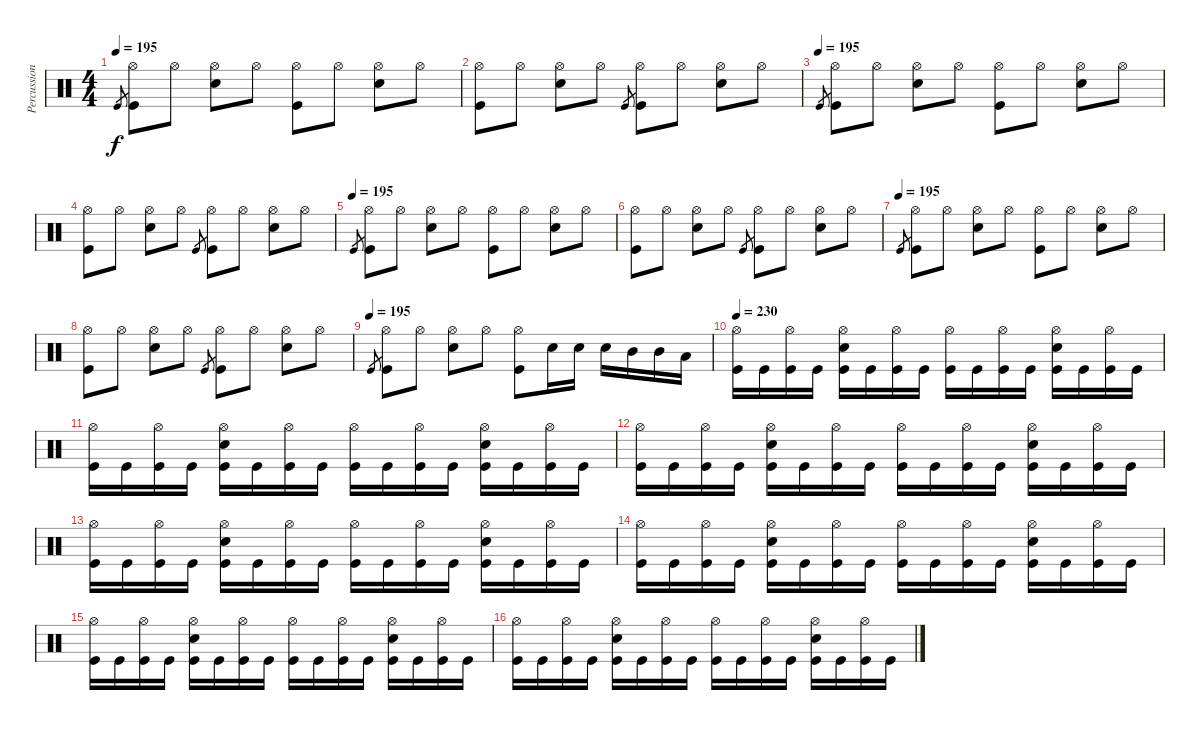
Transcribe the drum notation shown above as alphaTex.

\track ("Percussion" "Percussion") {instrument percussion}
\staff {score}
\articulation defaults
\ts (4 4)
\tempo 195
\clef neutral
\ks c "Kick (hit)".8{gr dy f}
("Hi-Hat (open)" "Kick (hit)").8 "Hi-Hat (open)".8 ("Hi-Hat (open)" "Electric Snare (hit)").8 "Hi-Hat (open)".8 ("Hi-Hat (open)" "Kick (hit)").8 "Hi-Hat (open)".8 ("Hi-Hat (open)" "Electric Snare (hit)").8 "Hi-Hat (open)".8 |
("Hi-Hat (open)" "Kick (hit)").8 "Hi-Hat (open)".8 ("Hi-Hat (open)" "Electric Snare (hit)").8 "Hi-Hat (open)".8 "Kick (hit)".8{gr} ("Hi-Hat (open)" "Kick (hit)").8 "Hi-Hat (open)".8 ("Hi-Hat (open)" "Electric Snare (hit)").8 "Hi-Hat (open)".8 |
\tempo (195)
"Kick (hit)".8{gr} ("Hi-Hat (open)" "Kick (hit)").8 "Hi-Hat (open)".8 ("Hi-Hat (open)" "Electric Snare (hit)").8 "Hi-Hat (open)".8 ("Hi-Hat (open)" "Kick (hit)").8 "Hi-Hat (open)".8 ("Hi-Hat (open)" "Electric Snare (hit)").8 "Hi-Hat (open)".8 |
("Hi-Hat (open)" "Kick (hit)").8 "Hi-Hat (open)".8 ("Hi-Hat (open)" "Electric Snare (hit)").8 "Hi-Hat (open)".8 "Kick (hit)".8{gr} ("Hi-Hat (open)" "Kick (hit)").8 "Hi-Hat (open)".8 ("Hi-Hat (open)" "Electric Snare (hit)").8 "Hi-Hat (open)".8 |
\tempo (195)
"Kick (hit)".8{gr} ("Hi-Hat (open)" "Kick (hit)").8 "Hi-Hat (open)".8 ("Hi-Hat (open)" "Electric Snare (hit)").8 "Hi-Hat (open)".8 ("Hi-Hat (open)" "Kick (hit)").8 "Hi-Hat (open)".8 ("Hi-Hat (open)" "Electric Snare (hit)").8 "Hi-Hat (open)".8 |
("Hi-Hat (open)" "Kick (hit)").8 "Hi-Hat (open)".8 ("Hi-Hat (open)" "Electric Snare (hit)").8 "Hi-Hat (open)".8 "Kick (hit)".8{gr} ("Hi-Hat (open)" "Kick (hit)").8 "Hi-Hat (open)".8 ("Hi-Hat (open)" "Electric Snare (hit)").8 "Hi-Hat (open)".8 |
\tempo (195)
"Kick (hit)".8{gr} ("Hi-Hat (open)" "Kick (hit)").8 "Hi-Hat (open)".8 ("Hi-Hat (open)" "Electric Snare (hit)").8 "Hi-Hat (open)".8 ("Hi-Hat (open)" "Kick (hit)").8 "Hi-Hat (open)".8 ("Hi-Hat (open)" "Electric Snare (hit)").8 "Hi-Hat (open)".8 |
("Hi-Hat (open)" "Kick (hit)").8 "Hi-Hat (open)".8 ("Hi-Hat (open)" "Electric Snare (hit)").8 "Hi-Hat (open)".8 "Kick (hit)".8{gr} ("Hi-Hat (open)" "Kick (hit)").8 "Hi-Hat (open)".8 ("Hi-Hat (open)" "Electric Snare (hit)").8 "Hi-Hat (open)".8 |
\tempo (195)
"Kick (hit)".8{gr} ("Hi-Hat (open)" "Kick (hit)").8 "Hi-Hat (open)".8 ("Hi-Hat (open)" "Electric Snare (hit)").8 "Hi-Hat (open)".8 ("Hi-Hat (open)" "Kick (hit)").8 "Electric Snare (hit)".16 "Electric Snare (hit)".16 "Electric Snare (hit)".16 "Mid Tom (hit)".16 "Mid Tom (hit)".16 "Low Tom (hit)".16 |
\tempo 230
("Hi-Hat (open)" "Kick (hit)").16 "Kick (hit)".16 ("Hi-Hat (open)" "Kick (hit)").16 "Kick (hit)".16 ("Hi-Hat (open)" "Electric Snare (hit)" "Kick (hit)").16 "Kick (hit)".16 ("Hi-Hat (open)" "Kick (hit)").16 "Kick (hit)".16 ("Hi-Hat (open)" "Kick (hit)").16 "Kick (hit)".16 ("Hi-Hat (open)" "Kick (hit)").16 "Kick (hit)".16 ("Hi-Hat (open)" "Electric Snare (hit)" "Kick (hit)").16 "Kick (hit)".16 ("Hi-Hat (open)" "Kick (hit)").16 "Kick (hit)".16 |
("Hi-Hat (open)" "Kick (hit)").16 "Kick (hit)".16 ("Hi-Hat (open)" "Kick (hit)").16 "Kick (hit)".16 ("Hi-Hat (open)" "Electric Snare (hit)" "Kick (hit)").16 "Kick (hit)".16 ("Hi-Hat (open)" "Kick (hit)").16 "Kick (hit)".16 ("Hi-Hat (open)" "Kick (hit)").16 "Kick (hit)".16 ("Hi-Hat (open)" "Kick (hit)").16 "Kick (hit)".16 ("Hi-Hat (open)" "Electric Snare (hit)" "Kick (hit)").16 "Kick (hit)".16 ("Hi-Hat (open)" "Kick (hit)").16 "Kick (hit)".16 |
("Hi-Hat (open)" "Kick (hit)").16 "Kick (hit)".16 ("Hi-Hat (open)" "Kick (hit)").16 "Kick (hit)".16 ("Hi-Hat (open)" "Electric Snare (hit)" "Kick (hit)").16 "Kick (hit)".16 ("Hi-Hat (open)" "Kick (hit)").16 "Kick (hit)".16 ("Hi-Hat (open)" "Kick (hit)").16 "Kick (hit)".16 ("Hi-Hat (open)" "Kick (hit)").16 "Kick (hit)".16 ("Hi-Hat (open)" "Electric Snare (hit)" "Kick (hit)").16 "Kick (hit)".16 ("Hi-Hat (open)" "Kick (hit)").16 "Kick (hit)".16 |
("Hi-Hat (open)" "Kick (hit)").16 "Kick (hit)".16 ("Hi-Hat (open)" "Kick (hit)").16 "Kick (hit)".16 ("Hi-Hat (open)" "Electric Snare (hit)" "Kick (hit)").16 "Kick (hit)".16 ("Hi-Hat (open)" "Kick (hit)").16 "Kick (hit)".16 ("Hi-Hat (open)" "Kick (hit)").16 "Kick (hit)".16 ("Hi-Hat (open)" "Kick (hit)").16 "Kick (hit)".16 ("Hi-Hat (open)" "Electric Snare (hit)" "Kick (hit)").16 "Kick (hit)".16 ("Hi-Hat (open)" "Kick (hit)").16 "Kick (hit)".16 |
("Hi-Hat (open)" "Kick (hit)").16 "Kick (hit)".16 ("Hi-Hat (open)" "Kick (hit)").16 "Kick (hit)".16 ("Hi-Hat (open)" "Electric Snare (hit)" "Kick (hit)").16 "Kick (hit)".16 ("Hi-Hat (open)" "Kick (hit)").16 "Kick (hit)".16 ("Hi-Hat (open)" "Kick (hit)").16 "Kick (hit)".16 ("Hi-Hat (open)" "Kick (hit)").16 "Kick (hit)".16 ("Hi-Hat (open)" "Electric Snare (hit)" "Kick (hit)").16 "Kick (hit)".16 ("Hi-Hat (open)" "Kick (hit)").16 "Kick (hit)".16 |
("Hi-Hat (open)" "Kick (hit)").16 "Kick (hit)".16 ("Hi-Hat (open)" "Kick (hit)").16 "Kick (hit)".16 ("Hi-Hat (open)" "Electric Snare (hit)" "Kick (hit)").16 "Kick (hit)".16 ("Hi-Hat (open)" "Kick (hit)").16 "Kick (hit)".16 ("Hi-Hat (open)" "Kick (hit)").16 "Kick (hit)".16 ("Hi-Hat (open)" "Kick (hit)").16 "Kick (hit)".16 ("Hi-Hat (open)" "Electric Snare (hit)" "Kick (hit)").16 "Kick (hit)".16 ("Hi-Hat (open)" "Kick (hit)").16 "Kick (hit)".16 |
("Hi-Hat (open)" "Kick (hit)").16 "Kick (hit)".16 ("Hi-Hat (open)" "Kick (hit)").16 "Kick (hit)".16 ("Hi-Hat (open)" "Electric Snare (hit)" "Kick (hit)").16 "Kick (hit)".16 ("Hi-Hat (open)" "Kick (hit)").16 "Kick (hit)".16 ("Hi-Hat (open)" "Kick (hit)").16 "Kick (hit)".16 ("Hi-Hat (open)" "Kick (hit)").16 "Kick (hit)".16 ("Hi-Hat (open)" "Electric Snare (hit)" "Kick (hit)").16 "Kick (hit)".16 ("Hi-Hat (open)" "Kick (hit)").16 "Kick (hit)".16
